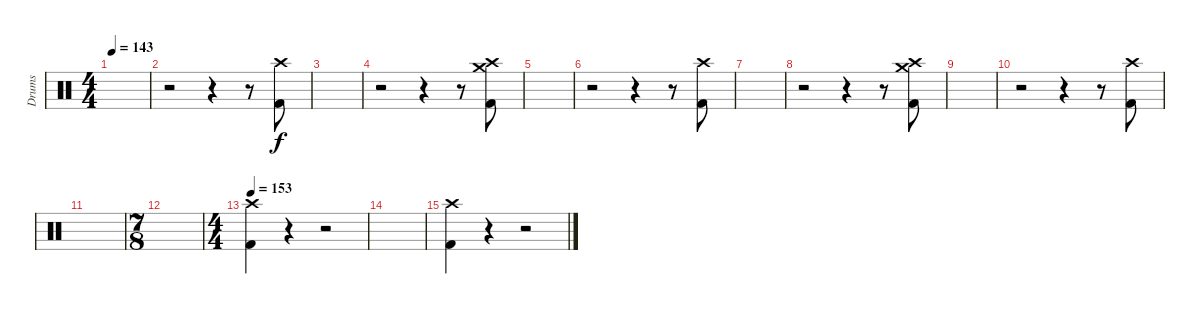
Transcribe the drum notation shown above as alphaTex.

\track ("Drums" "Drums") {instrument percussion}
\staff {score}
\articulation defaults
\ts (4 4)
\tempo 143
\clef neutral
\ks c
|
r.2 r.4 r.8 ("Crash high (hit)" "Kick (hit) 2").8 |
|
r.2 r.4 r.8 ("Crash high (hit)" "Crash medium (hit)" "Kick (hit) 2").8 |
|
r.2 r.4 r.8 ("Crash high (hit)" "Kick (hit) 2").8 |
|
r.2 r.4 r.8 ("Crash high (hit)" "Crash medium (hit)" "Kick (hit) 2").8 |
|
r.2 r.4 r.8 ("Crash high (hit)" "Kick (hit) 2").8 |
|
\ts (7 8)
|
\ts (4 4)
\tempo 153
("Crash high (hit)" "Kick (hit) 2").4{volume 12} r.4{volume 0} r.2 |
|
("Crash high (hit)" "Kick (hit) 2").4{volume 12} r.4{volume 0} r.2
